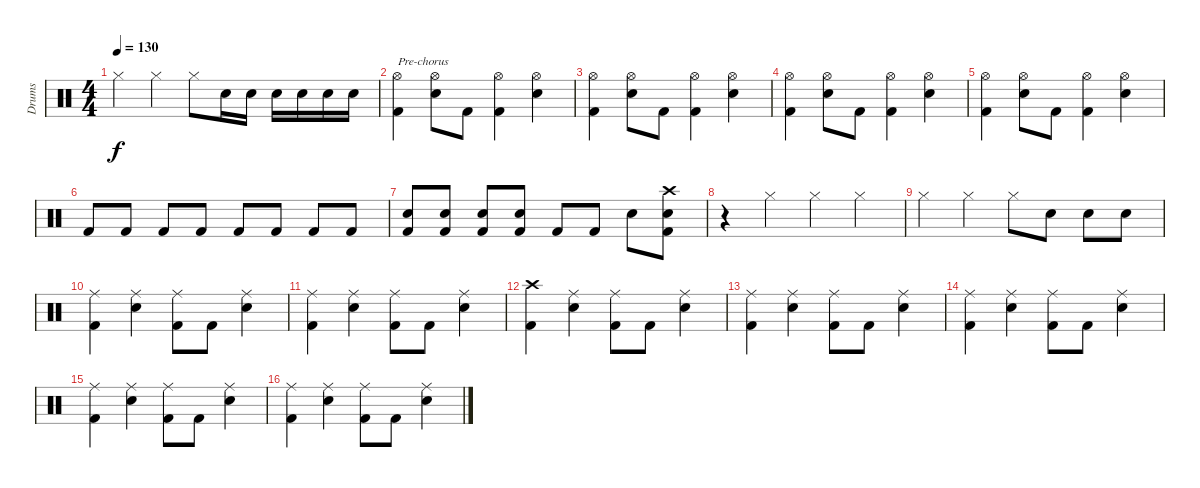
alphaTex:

\track ("Drums" "Drums") {instrument percussion}
\staff {score}
\articulation defaults
\ts (4 4)
\tempo 130
\clef neutral
\ks c "Hi-Hat (closed)".4{dy f} "Hi-Hat (closed)".4 "Hi-Hat (closed)".8 "Snare (hit) 2".16 "Snare (hit) 2".16 "Snare (hit) 2".16 "Snare (hit) 2".16 "Snare (hit) 2".16 "Snare (hit) 2".16
|
("Hi-Hat (open)" "Kick (hit) 2").4{txt "Pre-chorus"} ("Hi-Hat (open)" "Snare (hit) 2").8 "Kick (hit) 2".8 ("Hi-Hat (open)" "Kick (hit) 2").4 ("Hi-Hat (open)" "Snare (hit) 2").4 |
("Hi-Hat (open)" "Kick (hit) 2").4 ("Hi-Hat (open)" "Snare (hit) 2").8 "Kick (hit) 2".8 ("Hi-Hat (open)" "Kick (hit) 2").4 ("Hi-Hat (open)" "Snare (hit) 2").4 |
("Hi-Hat (open)" "Kick (hit) 2").4 ("Hi-Hat (open)" "Snare (hit) 2").8 "Kick (hit) 2".8 ("Hi-Hat (open)" "Kick (hit) 2").4 ("Hi-Hat (open)" "Snare (hit) 2").4 |
("Hi-Hat (open)" "Kick (hit) 2").4 ("Hi-Hat (open)" "Snare (hit) 2").8 "Kick (hit) 2".8 ("Hi-Hat (open)" "Kick (hit) 2").4 ("Hi-Hat (open)" "Snare (hit) 2").4 |
"Kick (hit) 2".8 "Kick (hit) 2".8 "Kick (hit) 2".8 "Kick (hit) 2".8 "Kick (hit) 2".8 "Kick (hit) 2".8 "Kick (hit) 2".8 "Kick (hit) 2".8 |
("Snare (hit) 2" "Kick (hit) 2").8 ("Snare (hit) 2" "Kick (hit) 2").8 ("Snare (hit) 2" "Kick (hit) 2").8 ("Snare (hit) 2" "Kick (hit) 2").8 "Kick (hit) 2".8 "Kick (hit) 2".8 "Snare (hit) 2".8 ("Crash high (hit)" "Snare (hit) 2" "Kick (hit) 2").8 |
r.4 "Hi-Hat (closed)".4 "Hi-Hat (closed)".4 "Hi-Hat (closed)".4 |
"Hi-Hat (closed)".4 "Hi-Hat (closed)".4 "Hi-Hat (closed)".8 "Snare (hit) 2".8 "Snare (hit) 2".8 "Snare (hit) 2".8 |
("Ride (middle)" "Kick (hit) 2").4 ("Ride (middle)" "Snare (hit) 2").4 ("Ride (middle)" "Kick (hit) 2").8 "Kick (hit) 2".8 ("Ride (middle)" "Snare (hit) 2").4 |
("Ride (middle)" "Kick (hit) 2").4 ("Ride (middle)" "Snare (hit) 2").4 ("Ride (middle)" "Kick (hit) 2").8 "Kick (hit) 2".8 ("Ride (middle)" "Snare (hit) 2").4 |
("Crash high (hit)" "Kick (hit) 2").4 ("Ride (middle)" "Snare (hit) 2").4 ("Ride (middle)" "Kick (hit) 2").8 "Kick (hit) 2".8 ("Ride (middle)" "Snare (hit) 2").4 |
("Ride (middle)" "Kick (hit) 2").4 ("Ride (middle)" "Snare (hit) 2").4 ("Ride (middle)" "Kick (hit) 2").8 "Kick (hit) 2".8 ("Ride (middle)" "Snare (hit) 2").4 |
("Ride (middle)" "Kick (hit) 2").4 ("Ride (middle)" "Snare (hit) 2").4 ("Ride (middle)" "Kick (hit) 2").8 "Kick (hit) 2".8 ("Ride (middle)" "Snare (hit) 2").4 |
("Ride (middle)" "Kick (hit) 2").4 ("Ride (middle)" "Snare (hit) 2").4 ("Ride (middle)" "Kick (hit) 2").8 "Kick (hit) 2".8 ("Ride (middle)" "Snare (hit) 2").4 |
("Ride (middle)" "Kick (hit) 2").4 ("Ride (middle)" "Snare (hit) 2").4 ("Ride (middle)" "Kick (hit) 2").8 "Kick (hit) 2".8 ("Ride (middle)" "Snare (hit) 2").4
